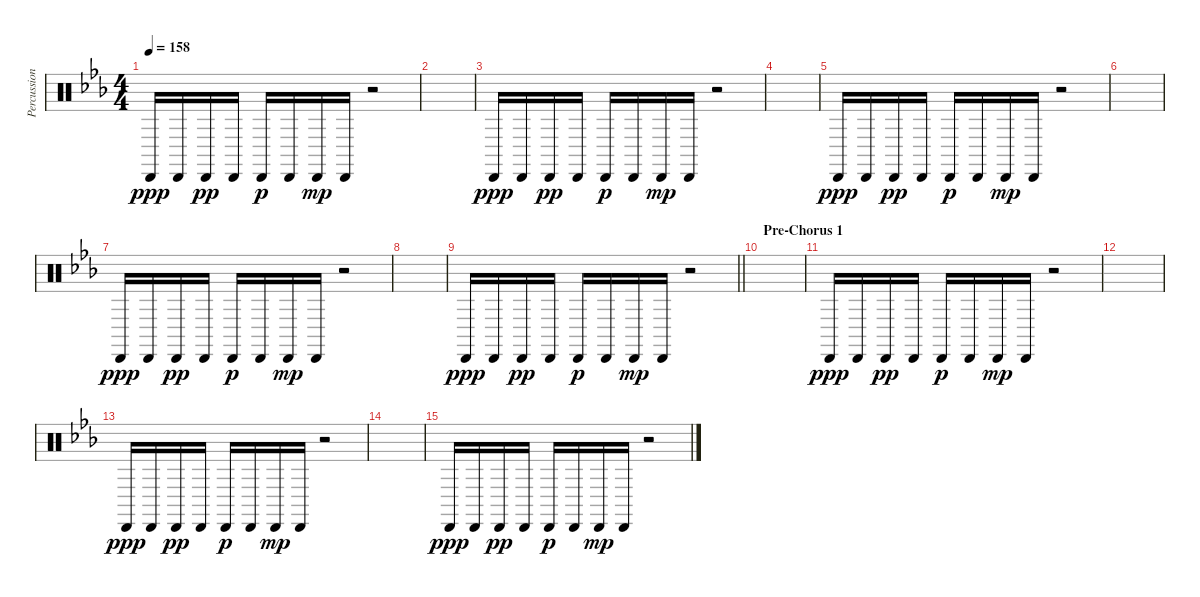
\track ("Percussion" "Percussion") {instrument percussion}
\staff {score}
\articulation defaults
\ts (4 4)
\tempo 158
\clef neutral
\ks eb "Cabasa (hit)".16{dy ppp} "Cabasa (hit)".16 "Cabasa (hit)".16{dy pp} "Cabasa (hit)".16 "Cabasa (hit)".16{dy p} "Cabasa (hit)".16 "Cabasa (hit)".16{dy mp} "Cabasa (hit)".16
r.2 |
|
"Cabasa (hit)".16{dy ppp} "Cabasa (hit)".16 "Cabasa (hit)".16{dy pp} "Cabasa (hit)".16 "Cabasa (hit)".16{dy p} "Cabasa (hit)".16 "Cabasa (hit)".16{dy mp} "Cabasa (hit)".16 r.2 |
|
"Cabasa (hit)".16{dy ppp} "Cabasa (hit)".16 "Cabasa (hit)".16{dy pp} "Cabasa (hit)".16 "Cabasa (hit)".16{dy p} "Cabasa (hit)".16 "Cabasa (hit)".16{dy mp} "Cabasa (hit)".16 r.2 |
|
"Cabasa (hit)".16{dy ppp} "Cabasa (hit)".16 "Cabasa (hit)".16{dy pp} "Cabasa (hit)".16 "Cabasa (hit)".16{dy p} "Cabasa (hit)".16 "Cabasa (hit)".16{dy mp} "Cabasa (hit)".16 r.2 |
|
\barLineRight lightlight "Cabasa (hit)".16{dy ppp} "Cabasa (hit)".16 "Cabasa (hit)".16{dy pp} "Cabasa (hit)".16 "Cabasa (hit)".16{dy p} "Cabasa (hit)".16 "Cabasa (hit)".16{dy mp} "Cabasa (hit)".16
r.2 |
\section ("" "Pre-Chorus 1")
|
"Cabasa (hit)".16{dy ppp} "Cabasa (hit)".16 "Cabasa (hit)".16{dy pp} "Cabasa (hit)".16 "Cabasa (hit)".16{dy p} "Cabasa (hit)".16 "Cabasa (hit)".16{dy mp} "Cabasa (hit)".16 r.2 |
|
"Cabasa (hit)".16{dy ppp} "Cabasa (hit)".16 "Cabasa (hit)".16{dy pp} "Cabasa (hit)".16 "Cabasa (hit)".16{dy p} "Cabasa (hit)".16 "Cabasa (hit)".16{dy mp} "Cabasa (hit)".16 r.2 |
|
"Cabasa (hit)".16{dy ppp} "Cabasa (hit)".16 "Cabasa (hit)".16{dy pp} "Cabasa (hit)".16 "Cabasa (hit)".16{dy p} "Cabasa (hit)".16 "Cabasa (hit)".16{dy mp} "Cabasa (hit)".16 r.2
